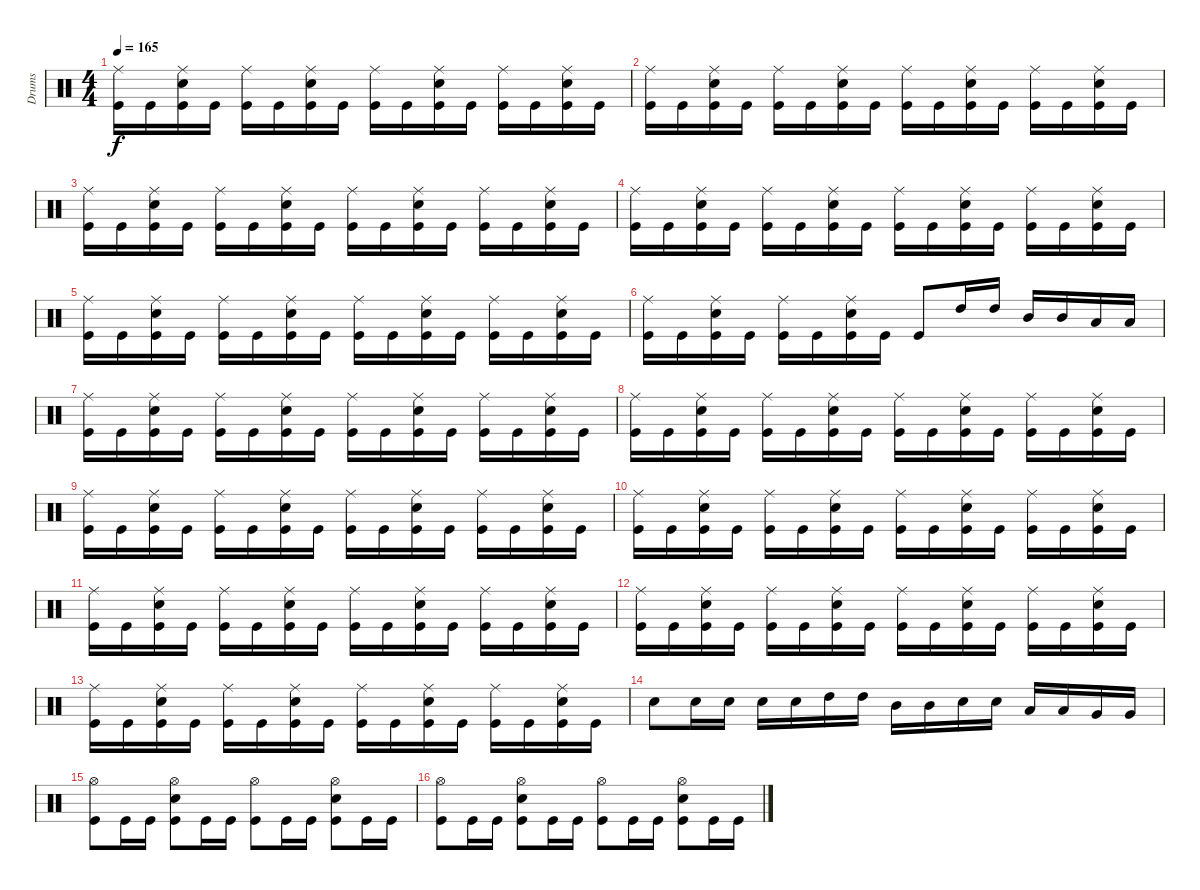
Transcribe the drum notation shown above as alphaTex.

\track ("Drums" "Drums") {instrument percussion}
\staff {score}
\articulation defaults
\ts (4 4)
\tempo 165
\clef neutral
\ks c
("Kick (hit)" "Ride (middle)").16{dy f} "Kick (hit)".16 ("Kick (hit)" "Snare (hit) 2" "Ride (middle)").16 "Kick (hit)".16 ("Kick (hit)" "Ride (middle)").16 "Kick (hit)".16 ("Kick (hit)" "Snare (hit) 2" "Ride (middle)").16 "Kick (hit)".16 ("Kick (hit)" "Ride (middle)").16 "Kick (hit)".16 ("Kick (hit)" "Snare (hit) 2" "Ride (middle)").16 "Kick (hit)".16 ("Kick (hit)" "Ride (middle)").16 "Kick (hit)".16 ("Kick (hit)" "Snare (hit) 2" "Ride (middle)").16 "Kick (hit)".16 |
("Kick (hit)" "Ride (middle)").16 "Kick (hit)".16 ("Kick (hit)" "Snare (hit) 2" "Ride (middle)").16 "Kick (hit)".16 ("Kick (hit)" "Ride (middle)").16 "Kick (hit)".16 ("Kick (hit)" "Snare (hit) 2" "Ride (middle)").16 "Kick (hit)".16 ("Kick (hit)" "Ride (middle)").16 "Kick (hit)".16 ("Kick (hit)" "Snare (hit) 2" "Ride (middle)").16 "Kick (hit)".16 ("Kick (hit)" "Ride (middle)").16 "Kick (hit)".16 ("Kick (hit)" "Snare (hit) 2" "Ride (middle)").16 "Kick (hit)".16 |
("Kick (hit)" "Ride (middle)").16 "Kick (hit)".16 ("Kick (hit)" "Snare (hit) 2" "Ride (middle)").16 "Kick (hit)".16 ("Kick (hit)" "Ride (middle)").16 "Kick (hit)".16 ("Kick (hit)" "Snare (hit) 2" "Ride (middle)").16 "Kick (hit)".16 ("Kick (hit)" "Ride (middle)").16 "Kick (hit)".16 ("Kick (hit)" "Snare (hit) 2" "Ride (middle)").16 "Kick (hit)".16 ("Kick (hit)" "Ride (middle)").16 "Kick (hit)".16 ("Kick (hit)" "Snare (hit) 2" "Ride (middle)").16 "Kick (hit)".16 |
("Kick (hit)" "Ride (middle)").16 "Kick (hit)".16 ("Kick (hit)" "Snare (hit) 2" "Ride (middle)").16 "Kick (hit)".16 ("Kick (hit)" "Ride (middle)").16 "Kick (hit)".16 ("Kick (hit)" "Snare (hit) 2" "Ride (middle)").16 "Kick (hit)".16 ("Kick (hit)" "Ride (middle)").16 "Kick (hit)".16 ("Kick (hit)" "Snare (hit) 2" "Ride (middle)").16 "Kick (hit)".16 ("Kick (hit)" "Ride (middle)").16 "Kick (hit)".16 ("Kick (hit)" "Snare (hit) 2" "Ride (middle)").16 "Kick (hit)".16 |
("Kick (hit)" "Ride (middle)").16 "Kick (hit)".16 ("Kick (hit)" "Snare (hit) 2" "Ride (middle)").16 "Kick (hit)".16 ("Kick (hit)" "Ride (middle)").16 "Kick (hit)".16 ("Kick (hit)" "Snare (hit) 2" "Ride (middle)").16 "Kick (hit)".16 ("Kick (hit)" "Ride (middle)").16 "Kick (hit)".16 ("Kick (hit)" "Snare (hit) 2" "Ride (middle)").16 "Kick (hit)".16 ("Kick (hit)" "Ride (middle)").16 "Kick (hit)".16 ("Kick (hit)" "Snare (hit) 2" "Ride (middle)").16 "Kick (hit)".16 |
("Kick (hit)" "Ride (middle)").16 "Kick (hit)".16 ("Kick (hit)" "Snare (hit) 2" "Ride (middle)").16 "Kick (hit)".16 ("Kick (hit)" "Ride (middle)").16 "Kick (hit)".16 ("Kick (hit)" "Snare (hit) 2" "Ride (middle)").16 "Kick (hit)".16 "Kick (hit)".8 "High Tom (hit)".16 "High Tom (hit)".16 "Mid Tom (hit)".16 "Mid Tom (hit)".16 "Low Tom (hit)".16 "Low Tom (hit)".16 |
("Kick (hit)" "Ride (middle)").16 "Kick (hit)".16 ("Kick (hit)" "Snare (hit) 2" "Ride (middle)").16 "Kick (hit)".16 ("Kick (hit)" "Ride (middle)").16 "Kick (hit)".16 ("Kick (hit)" "Snare (hit) 2" "Ride (middle)").16 "Kick (hit)".16 ("Kick (hit)" "Ride (middle)").16 "Kick (hit)".16 ("Kick (hit)" "Snare (hit) 2" "Ride (middle)").16 "Kick (hit)".16 ("Kick (hit)" "Ride (middle)").16 "Kick (hit)".16 ("Kick (hit)" "Snare (hit) 2" "Ride (middle)").16 "Kick (hit)".16 |
("Kick (hit)" "Ride (middle)").16 "Kick (hit)".16 ("Kick (hit)" "Snare (hit) 2" "Ride (middle)").16 "Kick (hit)".16 ("Kick (hit)" "Ride (middle)").16 "Kick (hit)".16 ("Kick (hit)" "Snare (hit) 2" "Ride (middle)").16 "Kick (hit)".16 ("Kick (hit)" "Ride (middle)").16 "Kick (hit)".16 ("Kick (hit)" "Snare (hit) 2" "Ride (middle)").16 "Kick (hit)".16 ("Kick (hit)" "Ride (middle)").16 "Kick (hit)".16 ("Kick (hit)" "Snare (hit) 2" "Ride (middle)").16 "Kick (hit)".16 |
("Kick (hit)" "Ride (middle)").16 "Kick (hit)".16 ("Kick (hit)" "Snare (hit) 2" "Ride (middle)").16 "Kick (hit)".16 ("Kick (hit)" "Ride (middle)").16 "Kick (hit)".16 ("Kick (hit)" "Snare (hit) 2" "Ride (middle)").16 "Kick (hit)".16 ("Kick (hit)" "Ride (middle)").16 "Kick (hit)".16 ("Kick (hit)" "Snare (hit) 2" "Ride (middle)").16 "Kick (hit)".16 ("Kick (hit)" "Ride (middle)").16 "Kick (hit)".16 ("Kick (hit)" "Snare (hit) 2" "Ride (middle)").16 "Kick (hit)".16 |
("Kick (hit)" "Ride (middle)").16 "Kick (hit)".16 ("Kick (hit)" "Snare (hit) 2" "Ride (middle)").16 "Kick (hit)".16 ("Kick (hit)" "Ride (middle)").16 "Kick (hit)".16 ("Kick (hit)" "Snare (hit) 2" "Ride (middle)").16 "Kick (hit)".16 ("Kick (hit)" "Ride (middle)").16 "Kick (hit)".16 ("Kick (hit)" "Snare (hit) 2" "Ride (middle)").16 "Kick (hit)".16 ("Kick (hit)" "Ride (middle)").16 "Kick (hit)".16 ("Kick (hit)" "Snare (hit) 2" "Ride (middle)").16 "Kick (hit)".16 |
("Kick (hit)" "Ride (middle)").16 "Kick (hit)".16 ("Kick (hit)" "Snare (hit) 2" "Ride (middle)").16 "Kick (hit)".16 ("Kick (hit)" "Ride (middle)").16 "Kick (hit)".16 ("Kick (hit)" "Snare (hit) 2" "Ride (middle)").16 "Kick (hit)".16 ("Kick (hit)" "Ride (middle)").16 "Kick (hit)".16 ("Kick (hit)" "Snare (hit) 2" "Ride (middle)").16 "Kick (hit)".16 ("Kick (hit)" "Ride (middle)").16 "Kick (hit)".16 ("Kick (hit)" "Snare (hit) 2" "Ride (middle)").16 "Kick (hit)".16 |
("Kick (hit)" "Ride (middle)").16 "Kick (hit)".16 ("Kick (hit)" "Snare (hit) 2" "Ride (middle)").16 "Kick (hit)".16 ("Kick (hit)" "Ride (middle)").16 "Kick (hit)".16 ("Kick (hit)" "Snare (hit) 2" "Ride (middle)").16 "Kick (hit)".16 ("Kick (hit)" "Ride (middle)").16 "Kick (hit)".16 ("Kick (hit)" "Snare (hit) 2" "Ride (middle)").16 "Kick (hit)".16 ("Kick (hit)" "Ride (middle)").16 "Kick (hit)".16 ("Kick (hit)" "Snare (hit) 2" "Ride (middle)").16 "Kick (hit)".16 |
("Kick (hit)" "Ride (middle)").16 "Kick (hit)".16 ("Kick (hit)" "Snare (hit) 2" "Ride (middle)").16 "Kick (hit)".16 ("Kick (hit)" "Ride (middle)").16 "Kick (hit)".16 ("Kick (hit)" "Snare (hit) 2" "Ride (middle)").16 "Kick (hit)".16 ("Kick (hit)" "Ride (middle)").16 "Kick (hit)".16 ("Kick (hit)" "Snare (hit) 2" "Ride (middle)").16 "Kick (hit)".16 ("Kick (hit)" "Ride (middle)").16 "Kick (hit)".16 ("Kick (hit)" "Snare (hit) 2" "Ride (middle)").16 "Kick (hit)".16 |
"Snare (hit) 2".8 "Snare (hit) 2".16 "Snare (hit) 2".16 "Snare (hit) 2".16 "Snare (hit) 2".16 "High Tom (hit)".16 "High Tom (hit)".16 "Mid Tom (hit)".16 "Mid Tom (hit)".16 "Snare (hit) 2".16 "Snare (hit) 2".16 "Low Tom (hit)".16 "Low Tom (hit)".16 "Very Low Tom (hit)".16 "Very Low Tom (hit)".16 |
("Kick (hit)" "Hi-Hat (open)").8 "Kick (hit)".16 "Kick (hit)".16 ("Kick (hit)" "Snare (hit) 2" "Hi-Hat (open)").8 "Kick (hit)".16 "Kick (hit)".16 ("Kick (hit)" "Hi-Hat (open)").8 "Kick (hit)".16 "Kick (hit)".16 ("Snare (hit) 2" "Kick (hit)" "Hi-Hat (open)").8 "Kick (hit)".16 "Kick (hit)".16 |
("Kick (hit)" "Hi-Hat (open)").8 "Kick (hit)".16 "Kick (hit)".16 ("Kick (hit)" "Snare (hit) 2" "Hi-Hat (open)").8 "Kick (hit)".16 "Kick (hit)".16 ("Kick (hit)" "Hi-Hat (open)").8 "Kick (hit)".16 "Kick (hit)".16 ("Snare (hit) 2" "Kick (hit)" "Hi-Hat (open)").8 "Kick (hit)".16 "Kick (hit)".16
